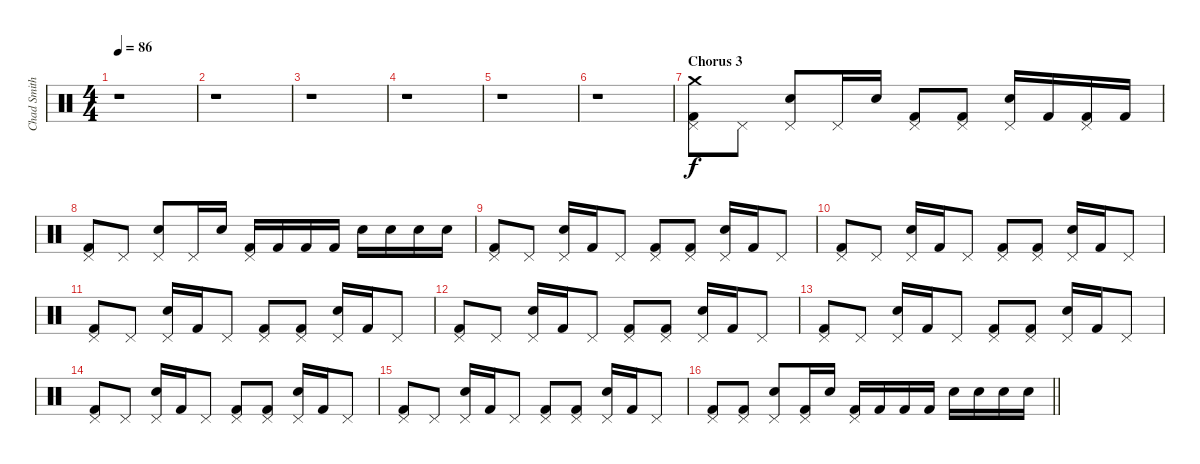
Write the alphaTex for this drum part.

\track ("Chad Smith (Percussions)" "Chad Smith") {instrument percussion}
\staff {score}
\articulation defaults
\ts (4 4)
\tempo 86
\clef neutral
\ks c
r.1{dy f} |
r.1 |
r.1 |
r.1 |
r.1 |
r.1 |
\section ("" "Chorus 3")
("Crash medium (hit)" "Pedal Hi-Hat (hit)" "Kick (hit) 2").8 "Pedal Hi-Hat (hit)".8 ("Pedal Hi-Hat (hit)" "Electric Snare (hit)").8 "Pedal Hi-Hat (hit)".16 "Electric Snare (hit)".16 ("Pedal Hi-Hat (hit)" "Kick (hit) 2").8 ("Pedal Hi-Hat (hit)" "Kick (hit) 2").8 ("Pedal Hi-Hat (hit)" "Electric Snare (hit)").16 "Kick (hit) 2".16 ("Pedal Hi-Hat (hit)" "Kick (hit) 2").16 "Kick (hit) 2".16 |
("Pedal Hi-Hat (hit)" "Kick (hit) 2").8 "Pedal Hi-Hat (hit)".8 ("Pedal Hi-Hat (hit)" "Electric Snare (hit)").8 "Pedal Hi-Hat (hit)".16 "Electric Snare (hit)".16 ("Pedal Hi-Hat (hit)" "Kick (hit) 2").16 "Kick (hit) 2".16 "Kick (hit) 2".16 "Kick (hit) 2".16 "Electric Snare (hit)".16 "Electric Snare (hit)".16 "Electric Snare (hit)".16 "Electric Snare (hit)".16 |
("Pedal Hi-Hat (hit)" "Kick (hit) 2").8 "Pedal Hi-Hat (hit)".8 ("Pedal Hi-Hat (hit)" "Electric Snare (hit)").16 "Kick (hit) 2".16 "Pedal Hi-Hat (hit)".8 ("Pedal Hi-Hat (hit)" "Kick (hit) 2").8 ("Pedal Hi-Hat (hit)" "Kick (hit) 2").8 ("Pedal Hi-Hat (hit)" "Electric Snare (hit)").16 "Kick (hit) 2".16 "Pedal Hi-Hat (hit)".8 |
("Pedal Hi-Hat (hit)" "Kick (hit) 2").8 "Pedal Hi-Hat (hit)".8 ("Pedal Hi-Hat (hit)" "Electric Snare (hit)").16 "Kick (hit) 2".16 "Pedal Hi-Hat (hit)".8 ("Pedal Hi-Hat (hit)" "Kick (hit) 2").8 ("Pedal Hi-Hat (hit)" "Kick (hit) 2").8 ("Pedal Hi-Hat (hit)" "Electric Snare (hit)").16 "Kick (hit) 2".16 "Pedal Hi-Hat (hit)".8 |
("Pedal Hi-Hat (hit)" "Kick (hit) 2").8 "Pedal Hi-Hat (hit)".8 ("Pedal Hi-Hat (hit)" "Electric Snare (hit)").16 "Kick (hit) 2".16 "Pedal Hi-Hat (hit)".8 ("Pedal Hi-Hat (hit)" "Kick (hit) 2").8 ("Pedal Hi-Hat (hit)" "Kick (hit) 2").8 ("Pedal Hi-Hat (hit)" "Electric Snare (hit)").16 "Kick (hit) 2".16 "Pedal Hi-Hat (hit)".8 |
("Pedal Hi-Hat (hit)" "Kick (hit) 2").8 "Pedal Hi-Hat (hit)".8 ("Pedal Hi-Hat (hit)" "Electric Snare (hit)").16 "Kick (hit) 2".16 "Pedal Hi-Hat (hit)".8 ("Pedal Hi-Hat (hit)" "Kick (hit) 2").8 ("Pedal Hi-Hat (hit)" "Kick (hit) 2").8 ("Pedal Hi-Hat (hit)" "Electric Snare (hit)").16 "Kick (hit) 2".16 "Pedal Hi-Hat (hit)".8 |
("Pedal Hi-Hat (hit)" "Kick (hit) 2").8 "Pedal Hi-Hat (hit)".8 ("Pedal Hi-Hat (hit)" "Electric Snare (hit)").16 "Kick (hit) 2".16 "Pedal Hi-Hat (hit)".8 ("Pedal Hi-Hat (hit)" "Kick (hit) 2").8 ("Pedal Hi-Hat (hit)" "Kick (hit) 2").8 ("Pedal Hi-Hat (hit)" "Electric Snare (hit)").16 "Kick (hit) 2".16 "Pedal Hi-Hat (hit)".8 |
("Pedal Hi-Hat (hit)" "Kick (hit) 2").8 "Pedal Hi-Hat (hit)".8 ("Pedal Hi-Hat (hit)" "Electric Snare (hit)").16 "Kick (hit) 2".16 "Pedal Hi-Hat (hit)".8 ("Pedal Hi-Hat (hit)" "Kick (hit) 2").8 ("Pedal Hi-Hat (hit)" "Kick (hit) 2").8 ("Pedal Hi-Hat (hit)" "Electric Snare (hit)").16 "Kick (hit) 2".16 "Pedal Hi-Hat (hit)".8 |
("Pedal Hi-Hat (hit)" "Kick (hit) 2").8 "Pedal Hi-Hat (hit)".8 ("Pedal Hi-Hat (hit)" "Electric Snare (hit)").16 "Kick (hit) 2".16 "Pedal Hi-Hat (hit)".8 ("Pedal Hi-Hat (hit)" "Kick (hit) 2").8 ("Pedal Hi-Hat (hit)" "Kick (hit) 2").8 ("Pedal Hi-Hat (hit)" "Electric Snare (hit)").16 "Kick (hit) 2".16 "Pedal Hi-Hat (hit)".8 |
\barLineRight lightlight
("Pedal Hi-Hat (hit)" "Kick (hit) 2").8 ("Pedal Hi-Hat (hit)" "Kick (hit) 2").8 ("Pedal Hi-Hat (hit)" "Electric Snare (hit)").8 ("Pedal Hi-Hat (hit)" "Kick (hit) 2").16 "Electric Snare (hit)".16 ("Pedal Hi-Hat (hit)" "Kick (hit) 2").16 "Kick (hit) 2".16 "Kick (hit) 2".16 "Kick (hit) 2".16 "Electric Snare (hit)".16 "Electric Snare (hit)".16 "Electric Snare (hit)".16 "Electric Snare (hit)".16
